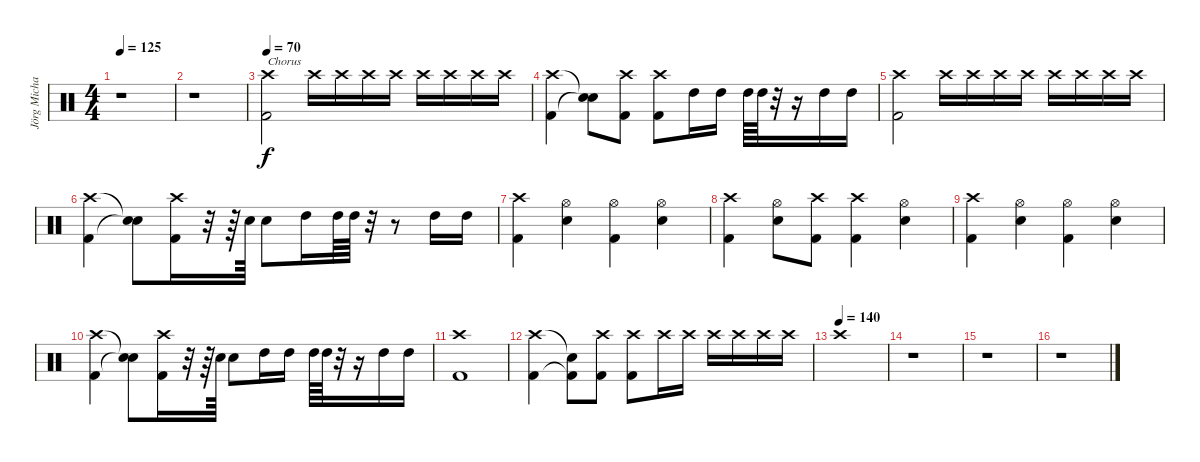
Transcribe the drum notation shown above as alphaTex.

\track ("Jörg Michael (Drums)" "Jörg Micha") {instrument percussion}
\staff {score}
\articulation defaults
\ts (4 4)
\tempo 125
\clef neutral
\ks c
r.1{dy f} |
r.1 |
\tempo 70
("Crash high (hit)" "Kick (hit) 2").2{txt "Chorus"} "Crash high (hit)".16{volume 2} "Crash high (hit)".16{volume 3} "Crash high (hit)".16{volume 4} "Crash high (hit)".16{volume 6} "Crash high (hit)".16{volume 8} "Crash high (hit)".16{volume 10} "Crash high (hit)".16{volume 12} "Crash high (hit)".16{volume 14} |
("Crash high (hit)" "Kick (hit) 2").4 ("Snare (hit)"{t} "Snare (hit)"{t}).8 ("Crash high (hit)" "Kick (hit) 2").8 ("Crash high (hit)" "Kick (hit) 2").8 "High Tom (hit)".16 "High Tom (hit)".16 "High Tom (hit)".64 "High Tom (hit)".64 r.32 r.16 "High Tom (hit)".16 "High Tom (hit)".16 |
("Crash high (hit)" "Kick (hit) 2").2 "Crash high (hit)".16{volume 2} "Crash high (hit)".16{volume 3} "Crash high (hit)".16{volume 4} "Crash high (hit)".16{volume 6} "Crash high (hit)".16{volume 8} "Crash high (hit)".16{volume 10} "Crash high (hit)".16{volume 12} "Crash high (hit)".16{volume 14} |
("Crash high (hit)" "Kick (hit) 2").4 ("Snare (hit)"{t} "Snare (hit)"{t}).8 ("Crash high (hit)" "Kick (hit) 2").16 r.32 r.64 "Snare (hit) 2".64 "Snare (hit) 2".8 "High Tom (hit)".16 "High Tom (hit)".64 "High Tom (hit)".64 r.32 r.8 "High Tom (hit)".16 "High Tom (hit)".16 |
("Crash high (hit)" "Kick (hit) 2").4 ("Hi-Hat (open)" "Snare (hit) 2").4 ("Hi-Hat (open)" "Kick (hit) 2").4 ("Hi-Hat (open)" "Snare (hit) 2").4 |
("Crash high (hit)" "Kick (hit) 2").4 ("Hi-Hat (open)" "Snare (hit) 2").8 ("Crash high (hit)" "Kick (hit) 2").8 ("Crash high (hit)" "Kick (hit) 2").4 ("Hi-Hat (open)" "Snare (hit) 2").4 |
("Crash high (hit)" "Kick (hit) 2").4 ("Hi-Hat (open)" "Snare (hit) 2").4 ("Hi-Hat (open)" "Kick (hit) 2").4 ("Hi-Hat (open)" "Snare (hit) 2").4 |
("Crash high (hit)" "Kick (hit) 2").4 ("Snare (hit)"{t} "Snare (hit)"{t}).8 ("Crash high (hit)" "Kick (hit) 2").16 r.32 r.64 "Snare (hit) 2".64 "Snare (hit) 2".8 "High Tom (hit)".16 "High Tom (hit)".16 "High Tom (hit)".64 "High Tom (hit)".64 r.32 r.16 "High Tom (hit)".16 "High Tom (hit)".16 |
("Crash high (hit)" "Kick (hit) 2").1 |
("Crash high (hit)" "Kick (hit) 2").4 ("Snare (hit)"{t} "Kick (hit) 2"{t}).8 ("Crash high (hit)" "Kick (hit) 2").8 ("Crash high (hit)" "Kick (hit) 2").8 "Crash high (hit)".16{volume 4} "Crash high (hit)".16{volume 6} "Crash high (hit)".16{volume 8} "Crash high (hit)".16{volume 10} "Crash high (hit)".16{volume 12} "Crash high (hit)".16{volume 14} |
\tempo (140)
"Crash high (hit)".1 |
r.1 |
r.1 |
r.1
